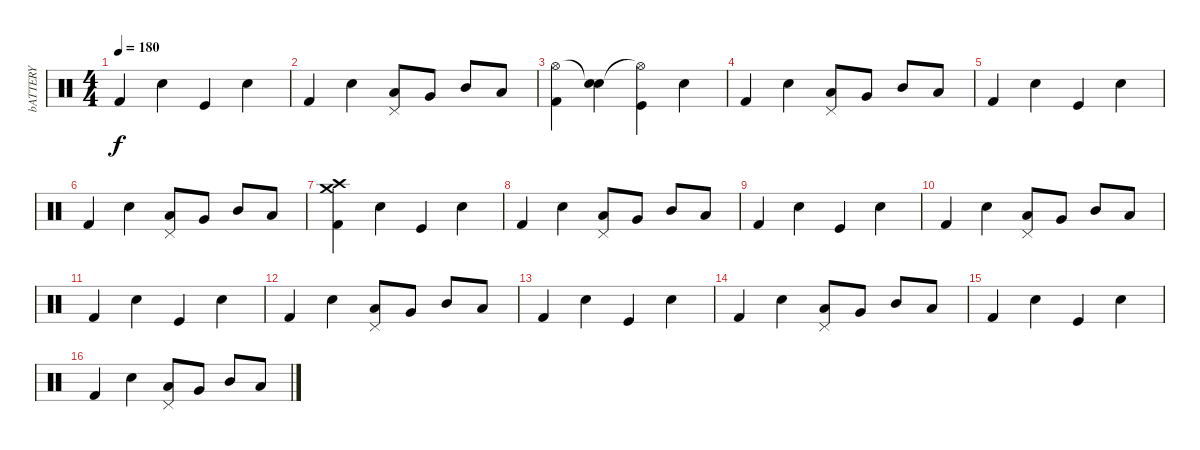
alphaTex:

\track ("bATTERY" "bATTERY") {instrument percussion}
\staff {score}
\articulation defaults
\ts (4 4)
\tempo 180
\clef neutral
\ks c "Kick (hit) 2".4{dy f} "Electric Snare (hit)".4 "Kick (hit)".4 "Electric Snare (hit)".4
|
"Kick (hit) 2".4 "Electric Snare (hit)".4 ("Pedal Hi-Hat (hit)" "Low Tom (hit)").8 "Very Low Tom (hit)".8 "Mid Tom (hit)".8 "Low Floor Tom (hit)".8 |
("Kick (hit) 2" "Hi-Hat (open)").4 ("Electric Snare (hit)" "Snare (hit)"{t}).4 ("Kick (hit)" "Hi-Hat (open)"{t}).4 "Electric Snare (hit)".4 |
"Kick (hit) 2".4 "Electric Snare (hit)".4 ("Pedal Hi-Hat (hit)" "Low Tom (hit)").8 "Very Low Tom (hit)".8 "Mid Tom (hit)".8 "Low Floor Tom (hit)".8 |
"Kick (hit) 2".4 "Electric Snare (hit)".4 "Kick (hit)".4 "Electric Snare (hit)".4 |
"Kick (hit) 2".4 "Electric Snare (hit)".4 ("Pedal Hi-Hat (hit)" "Low Tom (hit)").8 "Very Low Tom (hit)".8 "Mid Tom (hit)".8 "Low Floor Tom (hit)".8 |
("Kick (hit) 2" "Crash high (hit)" "Crash medium (hit)").4 "Electric Snare (hit)".4 "Kick (hit)".4 "Electric Snare (hit)".4 |
"Kick (hit) 2".4 "Electric Snare (hit)".4 ("Pedal Hi-Hat (hit)" "Low Tom (hit)").8 "Very Low Tom (hit)".8 "Mid Tom (hit)".8 "Low Floor Tom (hit)".8 |
"Kick (hit) 2".4 "Electric Snare (hit)".4 "Kick (hit)".4 "Electric Snare (hit)".4 |
"Kick (hit) 2".4 "Electric Snare (hit)".4 ("Pedal Hi-Hat (hit)" "Low Tom (hit)").8 "Very Low Tom (hit)".8 "Mid Tom (hit)".8 "Low Floor Tom (hit)".8 |
"Kick (hit) 2".4 "Electric Snare (hit)".4 "Kick (hit)".4 "Electric Snare (hit)".4 |
"Kick (hit) 2".4 "Electric Snare (hit)".4 ("Pedal Hi-Hat (hit)" "Low Tom (hit)").8 "Very Low Tom (hit)".8 "Mid Tom (hit)".8 "Low Floor Tom (hit)".8 |
"Kick (hit) 2".4 "Electric Snare (hit)".4 "Kick (hit)".4 "Electric Snare (hit)".4 |
"Kick (hit) 2".4 "Electric Snare (hit)".4 ("Pedal Hi-Hat (hit)" "Low Tom (hit)").8 "Very Low Tom (hit)".8 "Mid Tom (hit)".8 "Low Floor Tom (hit)".8 |
"Kick (hit) 2".4 "Electric Snare (hit)".4 "Kick (hit)".4 "Electric Snare (hit)".4 |
"Kick (hit) 2".4 "Electric Snare (hit)".4 ("Pedal Hi-Hat (hit)" "Low Tom (hit)").8 "Very Low Tom (hit)".8 "Mid Tom (hit)".8 "Low Floor Tom (hit)".8
